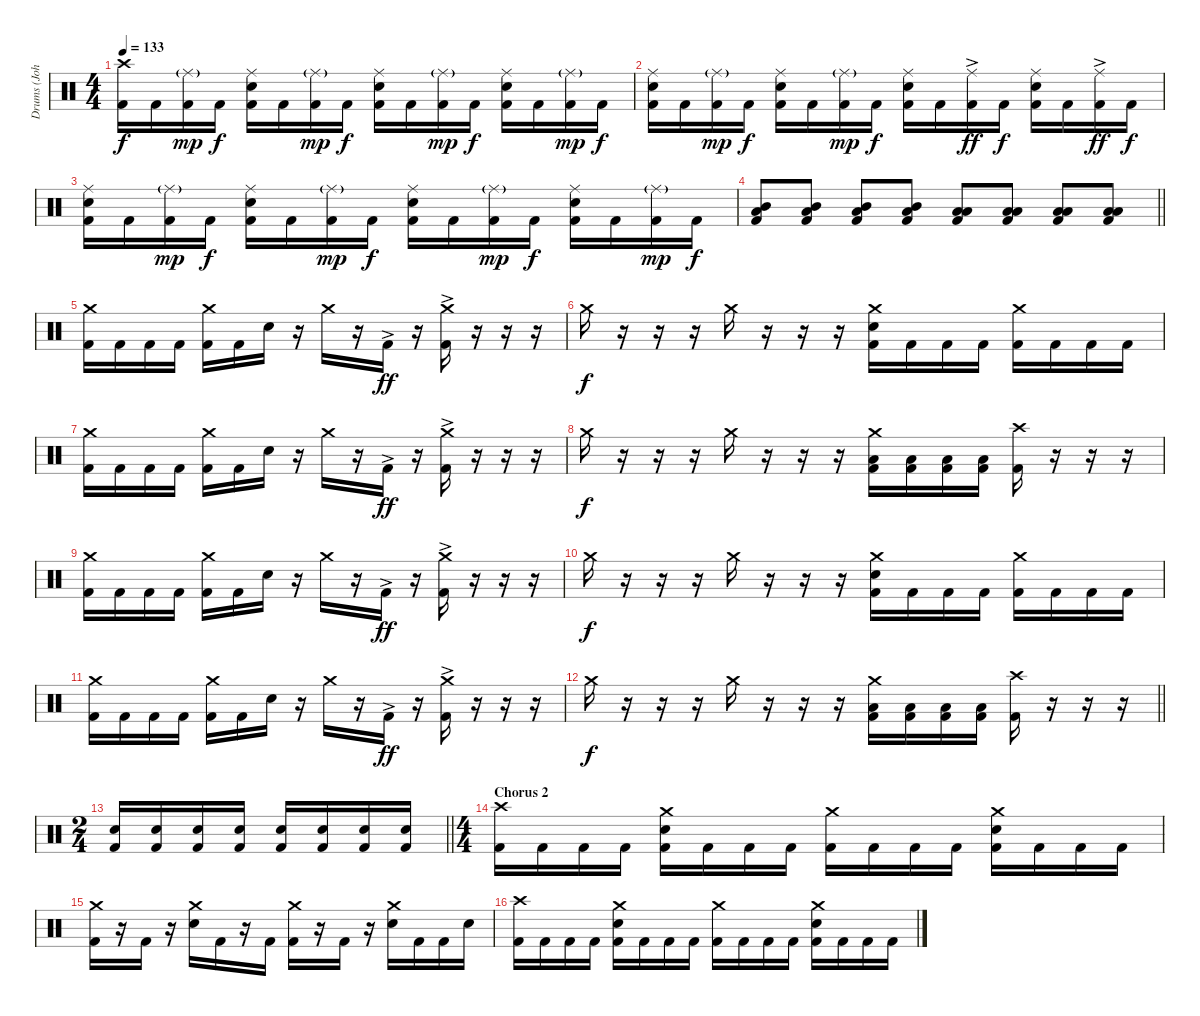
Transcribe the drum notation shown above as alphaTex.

\track ("Drums (John)" "Drums (Joh") {instrument percussion}
\staff {score}
\articulation defaults
\ts (4 4)
\tempo 133
\clef neutral
\ks c
("Crash high (hit)" "Kick (hit) 2").16{dy f} "Kick (hit) 2".16 ("Ride (middle)"{g} "Kick (hit) 2").16{dy mp} "Kick (hit) 2".16{dy f} ("Ride (middle)" "Electric Snare (hit)" "Kick (hit) 2").16 "Kick (hit) 2".16 ("Ride (middle)"{g} "Kick (hit) 2").16{dy mp} "Kick (hit) 2".16{dy f} ("Ride (middle)" "Electric Snare (hit)" "Kick (hit) 2").16 "Kick (hit) 2".16 ("Ride (middle)"{g} "Kick (hit) 2").16{dy mp} "Kick (hit) 2".16{dy f} ("Ride (middle)" "Electric Snare (hit)" "Kick (hit) 2").16 "Kick (hit) 2".16 ("Ride (middle)"{g} "Kick (hit) 2").16{dy mp} "Kick (hit) 2".16{dy f} |
("Ride (middle)" "Electric Snare (hit)" "Kick (hit) 2").16 "Kick (hit) 2".16 ("Ride (middle)"{g} "Kick (hit) 2").16{dy mp} "Kick (hit) 2".16{dy f} ("Ride (middle)" "Electric Snare (hit)" "Kick (hit) 2").16 "Kick (hit) 2".16 ("Ride (middle)"{g} "Kick (hit) 2").16{dy mp} "Kick (hit) 2".16{dy f} ("Ride (middle)" "Electric Snare (hit)" "Kick (hit) 2").16 "Kick (hit) 2".16 ("Ride (middle)"{ac} "Kick (hit) 2").16{dy ff} "Kick (hit) 2".16{dy f} ("Ride (middle)" "Electric Snare (hit)" "Kick (hit) 2").16 "Kick (hit) 2".16 ("Ride (middle)"{ac} "Kick (hit) 2").16{dy ff} "Kick (hit) 2".16{dy f} |
("Ride (middle)" "Electric Snare (hit)" "Kick (hit) 2").16 "Kick (hit) 2".16 ("Ride (middle)"{g} "Kick (hit) 2").16{dy mp} "Kick (hit) 2".16{dy f} ("Ride (middle)" "Electric Snare (hit)" "Kick (hit) 2").16 "Kick (hit) 2".16 ("Ride (middle)"{g} "Kick (hit) 2").16{dy mp} "Kick (hit) 2".16{dy f} ("Ride (middle)" "Electric Snare (hit)" "Kick (hit) 2").16 "Kick (hit) 2".16 ("Ride (middle)"{g} "Kick (hit) 2").16{dy mp} "Kick (hit) 2".16{dy f} ("Ride (middle)" "Electric Snare (hit)" "Kick (hit) 2").16 "Kick (hit) 2".16 ("Ride (middle)"{g} "Kick (hit) 2").16{dy mp} "Kick (hit) 2".16{dy f} |
\barLineRight lightlight
("Mid Tom (hit)" "Low Tom (hit)" "Kick (hit) 2").8 ("Mid Tom (hit)" "Low Tom (hit)" "Kick (hit) 2").8 ("Mid Tom (hit)" "Low Tom (hit)" "Kick (hit) 2").8 ("Mid Tom (hit)" "Low Tom (hit)" "Kick (hit) 2").8 ("Low Tom (hit)" "Low Floor Tom (hit)" "Kick (hit) 2").8 ("Low Tom (hit)" "Low Floor Tom (hit)" "Kick (hit) 2").8 ("Low Tom (hit)" "Low Floor Tom (hit)" "Kick (hit) 2").8 ("Low Tom (hit)" "Low Floor Tom (hit)" "Kick (hit) 2").8 |
("Crash medium (hit)" "Kick (hit) 2").16 "Kick (hit) 2".16 "Kick (hit) 2".16 "Kick (hit) 2".16 ("Crash medium (hit)" "Kick (hit) 2").16 "Kick (hit) 2".16 "Electric Snare (hit)".16 r.16 "Crash medium (hit)".16 r.16 "Kick (hit) 2"{ac}.16{dy ff} r.16 ("Crash medium (hit)" "Kick (hit) 2"{ac}).16 r.16 r.16 r.16 |
"Crash medium (hit)".16{dy f} r.16 r.16 r.16 "Crash medium (hit)".16 r.16 r.16 r.16 ("Crash medium (hit)" "Electric Snare (hit)" "Kick (hit) 2").16 "Kick (hit) 2".16 "Kick (hit) 2".16 "Kick (hit) 2".16 ("Crash medium (hit)" "Kick (hit) 2").16 "Kick (hit) 2".16 "Kick (hit) 2".16 "Kick (hit) 2".16 |
("Crash medium (hit)" "Kick (hit) 2").16 "Kick (hit) 2".16 "Kick (hit) 2".16 "Kick (hit) 2".16 ("Crash medium (hit)" "Kick (hit) 2").16 "Kick (hit) 2".16 "Electric Snare (hit)".16 r.16 "Crash medium (hit)".16 r.16 "Kick (hit) 2"{ac}.16{dy ff} r.16 ("Crash medium (hit)" "Kick (hit) 2"{ac}).16 r.16 r.16 r.16 |
"Crash medium (hit)".16{dy f} r.16 r.16 r.16 "Crash medium (hit)".16 r.16 r.16 r.16 ("Crash medium (hit)" "Low Tom (hit)" "Kick (hit) 2").16 ("Low Tom (hit)" "Kick (hit) 2").16 ("Low Tom (hit)" "Kick (hit) 2").16 ("Low Tom (hit)" "Kick (hit) 2").16 ("Crash high (hit)" "Kick (hit) 2").16 r.16 r.16 r.16 |
("Crash medium (hit)" "Kick (hit) 2").16 "Kick (hit) 2".16 "Kick (hit) 2".16 "Kick (hit) 2".16 ("Crash medium (hit)" "Kick (hit) 2").16 "Kick (hit) 2".16 "Electric Snare (hit)".16 r.16 "Crash medium (hit)".16 r.16 "Kick (hit) 2"{ac}.16{dy ff} r.16 ("Crash medium (hit)" "Kick (hit) 2"{ac}).16 r.16 r.16 r.16 |
"Crash medium (hit)".16{dy f} r.16 r.16 r.16 "Crash medium (hit)".16 r.16 r.16 r.16 ("Crash medium (hit)" "Electric Snare (hit)" "Kick (hit) 2").16 "Kick (hit) 2".16 "Kick (hit) 2".16 "Kick (hit) 2".16 ("Crash medium (hit)" "Kick (hit) 2").16 "Kick (hit) 2".16 "Kick (hit) 2".16 "Kick (hit) 2".16 |
("Crash medium (hit)" "Kick (hit) 2").16 "Kick (hit) 2".16 "Kick (hit) 2".16 "Kick (hit) 2".16 ("Crash medium (hit)" "Kick (hit) 2").16 "Kick (hit) 2".16 "Electric Snare (hit)".16 r.16 "Crash medium (hit)".16 r.16 "Kick (hit) 2"{ac}.16{dy ff} r.16 ("Crash medium (hit)" "Kick (hit) 2"{ac}).16 r.16 r.16 r.16 |
\barLineRight lightlight "Crash medium (hit)".16{dy f}
r.16 r.16 r.16 "Crash medium (hit)".16 r.16 r.16 r.16 ("Crash medium (hit)" "Low Tom (hit)" "Kick (hit) 2").16 ("Low Tom (hit)" "Kick (hit) 2").16 ("Low Tom (hit)" "Kick (hit) 2").16 ("Low Tom (hit)" "Kick (hit) 2").16 ("Crash high (hit)" "Kick (hit) 2").16 r.16 r.16 r.16 |
\ts (2 4)
\barLineRight lightlight
("Electric Snare (hit)" "Kick (hit) 2").16 ("Electric Snare (hit)" "Kick (hit) 2").16 ("Electric Snare (hit)" "Kick (hit) 2").16 ("Electric Snare (hit)" "Kick (hit) 2").16 ("Electric Snare (hit)" "Kick (hit) 2").16 ("Electric Snare (hit)" "Kick (hit) 2").16 ("Electric Snare (hit)" "Kick (hit) 2").16 ("Electric Snare (hit)" "Kick (hit) 2").16 |
\ts (4 4)
\section ("" "Chorus 2")
("Crash high (hit)" "Kick (hit) 2").16 "Kick (hit) 2".16 "Kick (hit) 2".16 "Kick (hit) 2".16 ("Crash medium (hit)" "Electric Snare (hit)" "Kick (hit) 2").16 "Kick (hit) 2".16 "Kick (hit) 2".16 "Kick (hit) 2".16 ("Crash medium (hit)" "Kick (hit) 2").16 "Kick (hit) 2".16 "Kick (hit) 2".16 "Kick (hit) 2".16 ("Crash medium (hit)" "Electric Snare (hit)" "Kick (hit) 2").16 "Kick (hit) 2".16 "Kick (hit) 2".16 "Kick (hit) 2".16 |
("Crash medium (hit)" "Kick (hit) 2").16 r.16 "Kick (hit) 2".16 r.16 ("Crash medium (hit)" "Electric Snare (hit)").16 "Kick (hit) 2".16 r.16 "Kick (hit) 2".16 ("Crash medium (hit)" "Kick (hit) 2").16 r.16 "Kick (hit) 2".16 r.16 ("Crash medium (hit)" "Electric Snare (hit)").16 "Kick (hit) 2".16 "Kick (hit) 2".16 "Electric Snare (hit)".16 |
("Crash high (hit)" "Kick (hit) 2").16 "Kick (hit) 2".16 "Kick (hit) 2".16 "Kick (hit) 2".16 ("Crash medium (hit)" "Electric Snare (hit)" "Kick (hit) 2").16 "Kick (hit) 2".16 "Kick (hit) 2".16 "Kick (hit) 2".16 ("Crash medium (hit)" "Kick (hit) 2").16 "Kick (hit) 2".16 "Kick (hit) 2".16 "Kick (hit) 2".16 ("Crash medium (hit)" "Electric Snare (hit)" "Kick (hit) 2").16 "Kick (hit) 2".16 "Kick (hit) 2".16 "Kick (hit) 2".16
